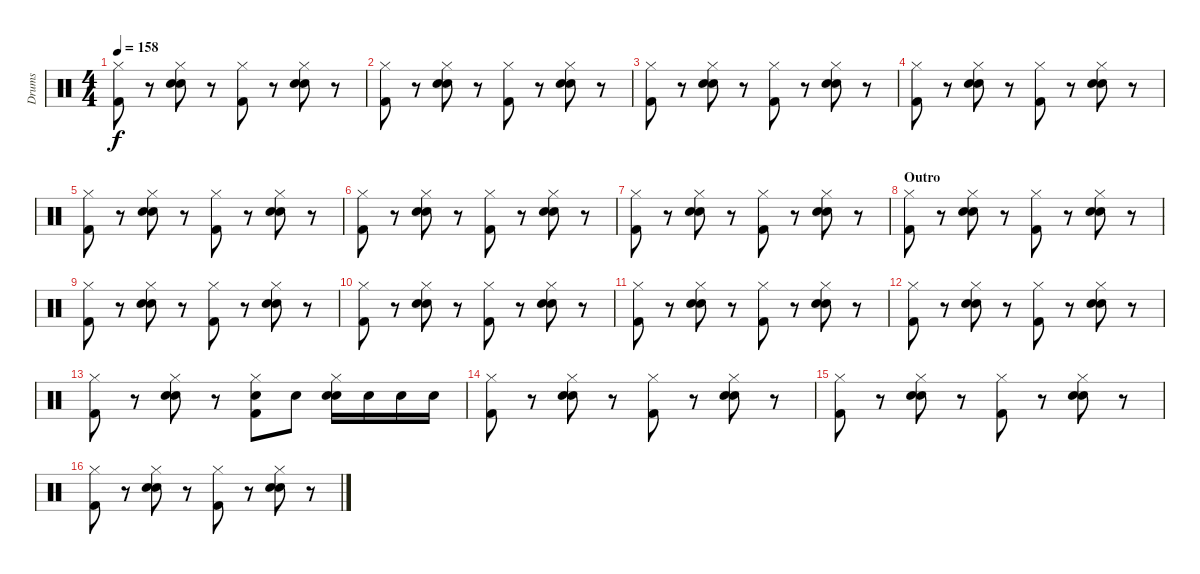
\track ("Drums" "Drums") {instrument percussion}
\staff {score}
\articulation defaults
\ts (4 4)
\tempo 158
\clef neutral
\ks c
("Hi-Hat (closed)" "Kick (hit) 2").8{dy f} r.8 ("Hi-Hat (closed)" "Snare (hit) 2" "Snare (hit) 2").8 r.8 ("Hi-Hat (closed)" "Kick (hit) 2").8 r.8 ("Hi-Hat (closed)" "Snare (hit) 2" "Snare (hit) 2").8 r.8 |
("Hi-Hat (closed)" "Kick (hit) 2").8 r.8 ("Hi-Hat (closed)" "Snare (hit) 2" "Snare (hit) 2").8 r.8 ("Hi-Hat (closed)" "Kick (hit) 2").8 r.8 ("Hi-Hat (closed)" "Snare (hit) 2" "Snare (hit) 2").8 r.8 |
("Hi-Hat (closed)" "Kick (hit) 2").8 r.8 ("Hi-Hat (closed)" "Snare (hit) 2" "Snare (hit) 2").8 r.8 ("Hi-Hat (closed)" "Kick (hit) 2").8 r.8 ("Hi-Hat (closed)" "Snare (hit) 2" "Snare (hit) 2").8 r.8 |
("Hi-Hat (closed)" "Kick (hit) 2").8 r.8 ("Hi-Hat (closed)" "Snare (hit) 2" "Snare (hit) 2").8 r.8 ("Hi-Hat (closed)" "Kick (hit) 2").8 r.8 ("Hi-Hat (closed)" "Snare (hit) 2" "Snare (hit) 2").8 r.8 |
("Hi-Hat (closed)" "Kick (hit) 2").8 r.8 ("Hi-Hat (closed)" "Snare (hit) 2" "Snare (hit) 2").8 r.8 ("Hi-Hat (closed)" "Kick (hit) 2").8 r.8 ("Hi-Hat (closed)" "Snare (hit) 2" "Snare (hit) 2").8 r.8 |
("Hi-Hat (closed)" "Kick (hit) 2").8 r.8 ("Hi-Hat (closed)" "Snare (hit) 2" "Snare (hit) 2").8 r.8 ("Hi-Hat (closed)" "Kick (hit) 2").8 r.8 ("Hi-Hat (closed)" "Snare (hit) 2" "Snare (hit) 2").8 r.8 |
("Hi-Hat (closed)" "Kick (hit) 2").8 r.8 ("Hi-Hat (closed)" "Snare (hit) 2" "Snare (hit) 2").8 r.8 ("Hi-Hat (closed)" "Kick (hit) 2").8 r.8 ("Hi-Hat (closed)" "Snare (hit) 2" "Snare (hit) 2").8 r.8 |
\section ("" "Outro")
("Hi-Hat (closed)" "Kick (hit) 2").8 r.8 ("Hi-Hat (closed)" "Snare (hit) 2" "Snare (hit) 2").8 r.8 ("Hi-Hat (closed)" "Kick (hit) 2").8 r.8 ("Hi-Hat (closed)" "Snare (hit) 2" "Snare (hit) 2").8 r.8 |
("Hi-Hat (closed)" "Kick (hit) 2").8 r.8 ("Hi-Hat (closed)" "Snare (hit) 2" "Snare (hit) 2").8 r.8 ("Hi-Hat (closed)" "Kick (hit) 2").8 r.8 ("Hi-Hat (closed)" "Snare (hit) 2" "Snare (hit) 2").8 r.8 |
("Hi-Hat (closed)" "Kick (hit) 2").8 r.8 ("Hi-Hat (closed)" "Snare (hit) 2" "Snare (hit) 2").8 r.8 ("Hi-Hat (closed)" "Kick (hit) 2").8 r.8 ("Hi-Hat (closed)" "Snare (hit) 2" "Snare (hit) 2").8 r.8 |
("Hi-Hat (closed)" "Kick (hit) 2").8 r.8 ("Hi-Hat (closed)" "Snare (hit) 2" "Snare (hit) 2").8 r.8 ("Hi-Hat (closed)" "Kick (hit) 2").8 r.8 ("Hi-Hat (closed)" "Snare (hit) 2" "Snare (hit) 2").8 r.8 |
("Hi-Hat (closed)" "Kick (hit) 2").8 r.8 ("Hi-Hat (closed)" "Snare (hit) 2" "Snare (hit) 2").8 r.8 ("Hi-Hat (closed)" "Kick (hit) 2").8 r.8 ("Hi-Hat (closed)" "Snare (hit) 2" "Snare (hit) 2").8 r.8 |
("Hi-Hat (closed)" "Kick (hit) 2").8 r.8 ("Hi-Hat (closed)" "Snare (hit) 2" "Snare (hit) 2").8 r.8 ("Hi-Hat (closed)" "Snare (hit) 2" "Kick (hit) 2").8 "Snare (hit) 2".8 ("Hi-Hat (closed)" "Snare (hit) 2" "Snare (hit) 2").16 "Snare (hit) 2".16 "Snare (hit) 2".16 "Snare (hit) 2".16 |
("Hi-Hat (closed)" "Kick (hit) 2").8 r.8 ("Hi-Hat (closed)" "Snare (hit) 2" "Snare (hit) 2").8 r.8 ("Hi-Hat (closed)" "Kick (hit) 2").8 r.8 ("Hi-Hat (closed)" "Snare (hit) 2" "Snare (hit) 2").8 r.8 |
("Hi-Hat (closed)" "Kick (hit) 2").8 r.8 ("Hi-Hat (closed)" "Snare (hit) 2" "Snare (hit) 2").8 r.8 ("Hi-Hat (closed)" "Kick (hit) 2").8 r.8 ("Hi-Hat (closed)" "Snare (hit) 2" "Snare (hit) 2").8 r.8 |
("Hi-Hat (closed)" "Kick (hit) 2").8 r.8 ("Hi-Hat (closed)" "Snare (hit) 2" "Snare (hit) 2").8 r.8 ("Hi-Hat (closed)" "Kick (hit) 2").8 r.8 ("Hi-Hat (closed)" "Snare (hit) 2" "Snare (hit) 2").8 r.8
